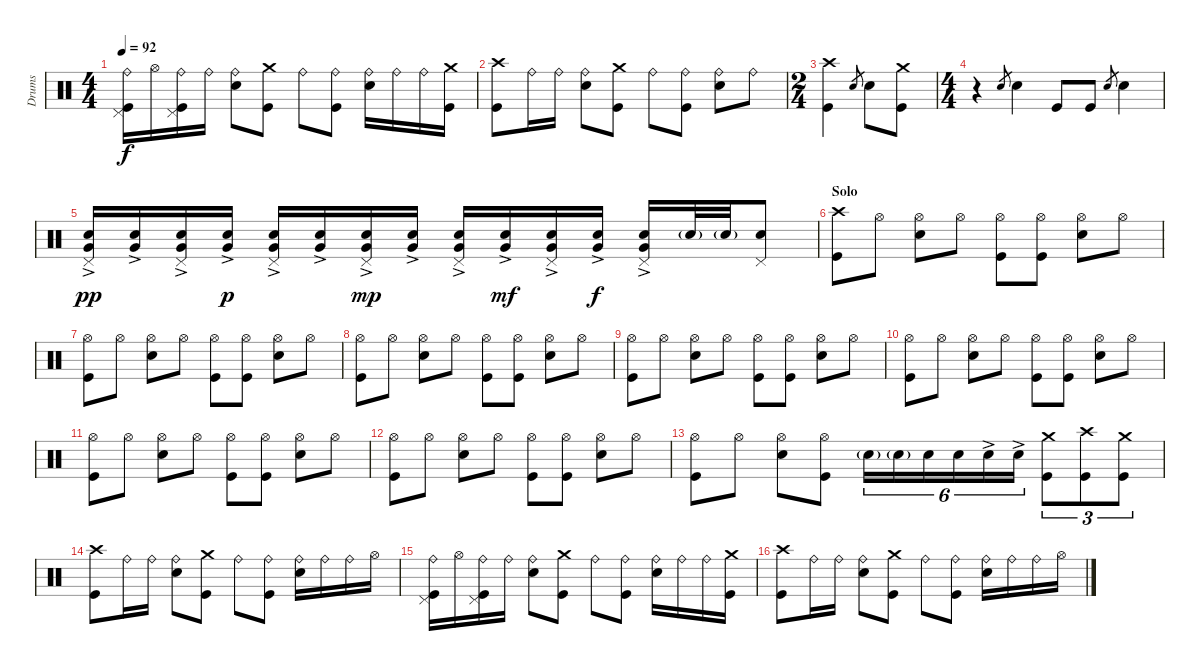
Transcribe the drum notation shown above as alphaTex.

\track ("Drums" "Drums") {instrument percussion}
\staff {score}
\articulation defaults
\ts (4 4)
\tempo 92
\clef neutral
\ks c
("Ride (bell)" "Pedal Hi-Hat (hit)" "Kick (hit)").16{dy f} "Hi-Hat (open)".16 ("Ride (bell)" "Pedal Hi-Hat (hit)" "Kick (hit)").16 "Ride (bell)".16 ("Snare (hit) 2" "Ride (bell)").8 ("Crash medium (hit)" "Kick (hit)").8 "Ride (bell)".8 ("Ride (bell)" "Kick (hit)").8 ("Snare (hit) 2" "Ride (bell)").16 "Ride (bell)".16 "Ride (bell)".16 ("Crash medium (hit)" "Kick (hit)").16 |
("Kick (hit)" "Crash high (hit)").8 "Ride (bell)".16 "Ride (bell)".16 ("Ride (bell)" "Snare (hit) 2").8 ("Crash medium (hit)" "Kick (hit)").8 "Ride (bell)".8 ("Ride (bell)" "Kick (hit)").8 ("Ride (bell)" "Snare (hit) 2").8 "Ride (bell)".8 |
\ts (2 4)
("Kick (hit)" "Crash high (hit)").4 "Snare (hit)".8{gr} "Snare (hit) 2".8 ("Crash medium (hit)" "Kick (hit)").8 |
\ts (4 4)
r.4 "Snare (hit)".8{gr} "Snare (hit) 2".4 "Kick (hit)".8 "Kick (hit)".8 "Snare (hit)".8{gr} "Snare (hit) 2".4 |
("Very Low Tom (hit)"{ac} "Snare (hit) 2" "Pedal Hi-Hat (hit)").16{dy pp} ("Very Low Tom (hit)"{ac} "Snare (hit) 2").16 ("Very Low Tom (hit)"{ac} "Snare (hit) 2" "Pedal Hi-Hat (hit)").16 ("Very Low Tom (hit)"{ac} "Snare (hit) 2").16{dy p} ("Very Low Tom (hit)"{ac} "Snare (hit) 2" "Pedal Hi-Hat (hit)").16 ("Very Low Tom (hit)"{ac} "Snare (hit) 2").16 ("Very Low Tom (hit)"{ac} "Snare (hit) 2" "Pedal Hi-Hat (hit)").16{dy mp} ("Very Low Tom (hit)"{ac} "Snare (hit) 2").16 ("Very Low Tom (hit)"{ac} "Snare (hit) 2" "Pedal Hi-Hat (hit)").16 ("Very Low Tom (hit)"{ac} "Snare (hit) 2").16{dy mf} ("Very Low Tom (hit)"{ac} "Snare (hit) 2" "Pedal Hi-Hat (hit)").16 ("Very Low Tom (hit)"{ac} "Snare (hit) 2").16{dy f} ("Very Low Tom (hit)"{ac} "Snare (hit) 2" "Pedal Hi-Hat (hit)").16 "Snare (hit) 2"{g}.32 "Snare (hit) 2"{g}.32 ("Snare (hit) 2" "Pedal Hi-Hat (hit)").8 |
\section ("" "Solo")
("Kick (hit)" "Crash high (hit)").8 "Hi-Hat (open)".8 ("Hi-Hat (open)" "Snare (hit) 2").8 "Hi-Hat (open)".8 ("Hi-Hat (open)" "Kick (hit)").8 ("Hi-Hat (open)" "Kick (hit)").8 ("Hi-Hat (open)" "Snare (hit) 2").8 "Hi-Hat (open)".8 |
("Kick (hit)" "Hi-Hat (open)").8 "Hi-Hat (open)".8 ("Hi-Hat (open)" "Snare (hit) 2").8 "Hi-Hat (open)".8 ("Hi-Hat (open)" "Kick (hit)").8 ("Hi-Hat (open)" "Kick (hit)").8 ("Hi-Hat (open)" "Snare (hit) 2").8 "Hi-Hat (open)".8 |
("Kick (hit)" "Hi-Hat (open)").8 "Hi-Hat (open)".8 ("Hi-Hat (open)" "Snare (hit) 2").8 "Hi-Hat (open)".8 ("Hi-Hat (open)" "Kick (hit)").8 ("Hi-Hat (open)" "Kick (hit)").8 ("Hi-Hat (open)" "Snare (hit) 2").8 "Hi-Hat (open)".8 |
("Kick (hit)" "Hi-Hat (open)").8 "Hi-Hat (open)".8 ("Hi-Hat (open)" "Snare (hit) 2").8 "Hi-Hat (open)".8 ("Hi-Hat (open)" "Kick (hit)").8 ("Hi-Hat (open)" "Kick (hit)").8 ("Hi-Hat (open)" "Snare (hit) 2").8 "Hi-Hat (open)".8 |
("Kick (hit)" "Hi-Hat (open)").8 "Hi-Hat (open)".8 ("Hi-Hat (open)" "Snare (hit) 2").8 "Hi-Hat (open)".8 ("Hi-Hat (open)" "Kick (hit)").8 ("Hi-Hat (open)" "Kick (hit)").8 ("Hi-Hat (open)" "Snare (hit) 2").8 "Hi-Hat (open)".8 |
("Kick (hit)" "Hi-Hat (open)").8 "Hi-Hat (open)".8 ("Hi-Hat (open)" "Snare (hit) 2").8 "Hi-Hat (open)".8 ("Hi-Hat (open)" "Kick (hit)").8 ("Hi-Hat (open)" "Kick (hit)").8 ("Hi-Hat (open)" "Snare (hit) 2").8 "Hi-Hat (open)".8 |
("Kick (hit)" "Hi-Hat (open)").8 "Hi-Hat (open)".8 ("Hi-Hat (open)" "Snare (hit) 2").8 "Hi-Hat (open)".8 ("Hi-Hat (open)" "Kick (hit)").8 ("Hi-Hat (open)" "Kick (hit)").8 ("Hi-Hat (open)" "Snare (hit) 2").8 "Hi-Hat (open)".8 |
("Kick (hit)" "Hi-Hat (open)").8 "Hi-Hat (open)".8 ("Hi-Hat (open)" "Snare (hit) 2").8 ("Hi-Hat (open)" "Kick (hit)").8 "Snare (hit) 2"{g}.16{tu (6 4)} "Snare (hit) 2"{g}.16{tu (6 4)} "Snare (hit) 2".16{tu (6 4)} "Snare (hit) 2".16{tu (6 4)} "Snare (hit) 2"{ac}.16{tu (6 4)} "Snare (hit) 2"{ac}.16{tu (6 4)} ("Crash medium (hit)" "Kick (hit)").8{tu (3 2)} ("Crash high (hit)" "Kick (hit)").8{tu (3 2)} ("Crash medium (hit)" "Kick (hit)").8{tu (3 2)} |
("Kick (hit)" "Crash high (hit)").8 "Ride (bell)".16 "Ride (bell)".16 ("Ride (bell)" "Snare (hit) 2").8 ("Crash medium (hit)" "Kick (hit)").8 "Ride (bell)".8 ("Ride (bell)" "Kick (hit)").8 ("Ride (bell)" "Snare (hit) 2").16 "Ride (bell)".16 "Ride (bell)".16 "Hi-Hat (open)".16 |
("Ride (bell)" "Pedal Hi-Hat (hit)" "Kick (hit)").16 "Hi-Hat (open)".16 ("Ride (bell)" "Pedal Hi-Hat (hit)" "Kick (hit)").16 "Ride (bell)".16 ("Snare (hit) 2" "Ride (bell)").8 ("Crash medium (hit)" "Kick (hit)").8 "Ride (bell)".8 ("Ride (bell)" "Kick (hit)").8 ("Snare (hit) 2" "Ride (bell)").16 "Ride (bell)".16 "Ride (bell)".16 ("Crash medium (hit)" "Kick (hit)").16 |
("Kick (hit)" "Crash high (hit)").8 "Ride (bell)".16 "Ride (bell)".16 ("Ride (bell)" "Snare (hit) 2").8 ("Crash medium (hit)" "Kick (hit)").8 "Ride (bell)".8 ("Ride (bell)" "Kick (hit)").8 ("Ride (bell)" "Snare (hit) 2").16 "Ride (bell)".16 "Ride (bell)".16 "Hi-Hat (open)".16
